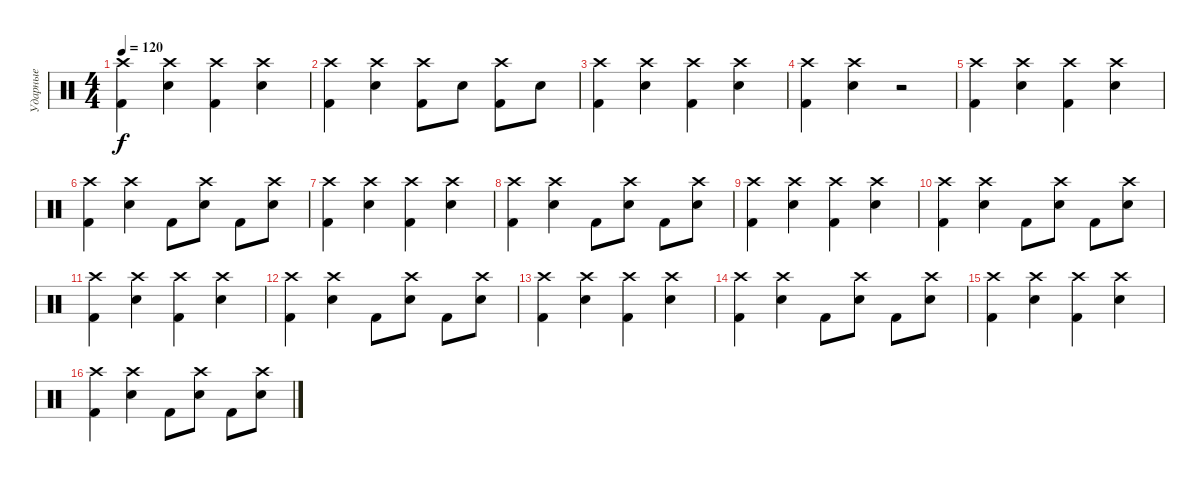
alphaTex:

\track ("Ударные" "Ударные") {instrument percussion}
\staff {score}
\articulation defaults
\ts (4 4)
\tempo 120
\clef neutral
\ks c
("Crash high (hit)" "Kick (hit) 2").4{dy f} ("Crash high (hit)" "Electric Snare (hit)").4 ("Crash high (hit)" "Kick (hit) 2").4 ("Crash high (hit)" "Electric Snare (hit)").4 |
("Crash high (hit)" "Kick (hit) 2").4 ("Crash high (hit)" "Electric Snare (hit)").4 ("Crash high (hit)" "Kick (hit) 2").8 "Electric Snare (hit)".8 ("Crash high (hit)" "Kick (hit) 2").8 "Electric Snare (hit)".8 |
("Crash high (hit)" "Kick (hit) 2").4 ("Crash high (hit)" "Electric Snare (hit)").4 ("Crash high (hit)" "Kick (hit) 2").4 ("Crash high (hit)" "Electric Snare (hit)").4 |
("Crash high (hit)" "Kick (hit) 2").4 ("Crash high (hit)" "Electric Snare (hit)").4 r.2 |
("Crash high (hit)" "Kick (hit) 2").4 ("Crash high (hit)" "Electric Snare (hit)").4 ("Crash high (hit)" "Kick (hit) 2").4 ("Crash high (hit)" "Electric Snare (hit)").4 |
("Crash high (hit)" "Kick (hit) 2").4 ("Crash high (hit)" "Electric Snare (hit)").4 "Kick (hit) 2".8 ("Crash high (hit)" "Electric Snare (hit)").8 "Kick (hit) 2".8 ("Crash high (hit)" "Electric Snare (hit)").8 |
("Crash high (hit)" "Kick (hit) 2").4 ("Crash high (hit)" "Electric Snare (hit)").4 ("Crash high (hit)" "Kick (hit) 2").4 ("Crash high (hit)" "Electric Snare (hit)").4 |
("Crash high (hit)" "Kick (hit) 2").4 ("Crash high (hit)" "Electric Snare (hit)").4 "Kick (hit) 2".8 ("Crash high (hit)" "Electric Snare (hit)").8 "Kick (hit) 2".8 ("Crash high (hit)" "Electric Snare (hit)").8 |
("Crash high (hit)" "Kick (hit) 2").4 ("Crash high (hit)" "Electric Snare (hit)").4 ("Crash high (hit)" "Kick (hit) 2").4 ("Crash high (hit)" "Electric Snare (hit)").4 |
("Crash high (hit)" "Kick (hit) 2").4 ("Crash high (hit)" "Electric Snare (hit)").4 "Kick (hit) 2".8 ("Crash high (hit)" "Electric Snare (hit)").8 "Kick (hit) 2".8 ("Crash high (hit)" "Electric Snare (hit)").8 |
("Crash high (hit)" "Kick (hit) 2").4 ("Crash high (hit)" "Electric Snare (hit)").4 ("Crash high (hit)" "Kick (hit) 2").4 ("Crash high (hit)" "Electric Snare (hit)").4 |
("Crash high (hit)" "Kick (hit) 2").4 ("Crash high (hit)" "Electric Snare (hit)").4 "Kick (hit) 2".8 ("Crash high (hit)" "Electric Snare (hit)").8 "Kick (hit) 2".8 ("Crash high (hit)" "Electric Snare (hit)").8 |
("Crash high (hit)" "Kick (hit) 2").4 ("Crash high (hit)" "Electric Snare (hit)").4 ("Crash high (hit)" "Kick (hit) 2").4 ("Crash high (hit)" "Electric Snare (hit)").4 |
("Crash high (hit)" "Kick (hit) 2").4 ("Crash high (hit)" "Electric Snare (hit)").4 "Kick (hit) 2".8 ("Crash high (hit)" "Electric Snare (hit)").8 "Kick (hit) 2".8 ("Crash high (hit)" "Electric Snare (hit)").8 |
("Crash high (hit)" "Kick (hit) 2").4 ("Crash high (hit)" "Electric Snare (hit)").4 ("Crash high (hit)" "Kick (hit) 2").4 ("Crash high (hit)" "Electric Snare (hit)").4 |
("Crash high (hit)" "Kick (hit) 2").4 ("Crash high (hit)" "Electric Snare (hit)").4 "Kick (hit) 2".8 ("Crash high (hit)" "Electric Snare (hit)").8 "Kick (hit) 2".8 ("Crash high (hit)" "Electric Snare (hit)").8
